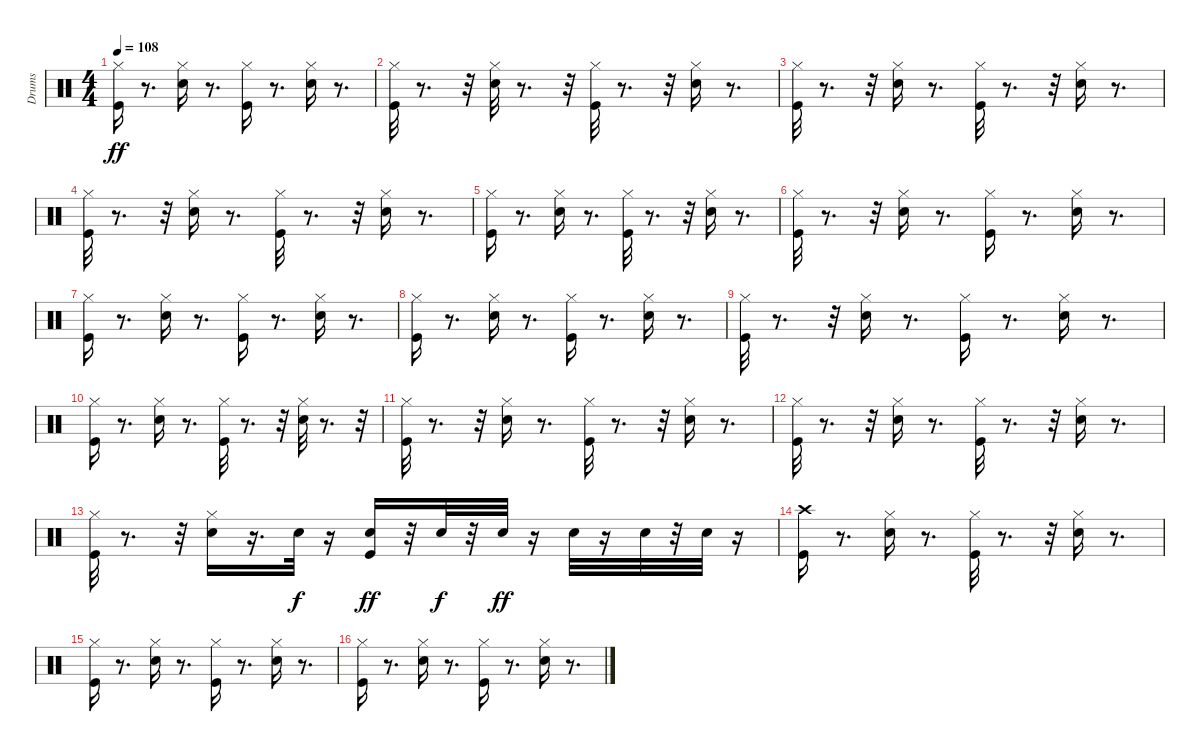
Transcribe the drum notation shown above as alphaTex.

\track ("Drums" "Drums") {instrument percussion}
\staff {score}
\articulation defaults
\ts (4 4)
\tempo 108
\clef neutral
\ks c
("Hi-Hat (closed)" "Kick (hit)").16{dy ff} r.8{d} ("Hi-Hat (closed)" "Electric Snare (hit)").16 r.8{d} ("Hi-Hat (closed)" "Kick (hit)").16 r.8{d} ("Hi-Hat (closed)" "Electric Snare (hit)").16 r.8{d} |
("Hi-Hat (closed)" "Kick (hit)").32 r.8{d} r.32 ("Hi-Hat (closed)" "Electric Snare (hit)").32 r.8{d} r.32 ("Kick (hit)" "Hi-Hat (closed)").32 r.8{d} r.32 ("Electric Snare (hit)" "Hi-Hat (closed)").16 r.8{d} |
("Hi-Hat (closed)" "Kick (hit)").32 r.8{d} r.32 ("Hi-Hat (closed)" "Electric Snare (hit)").16 r.8{d} ("Hi-Hat (closed)" "Kick (hit)").32 r.8{d} r.32 ("Hi-Hat (closed)" "Electric Snare (hit)").16 r.8{d} |
("Hi-Hat (closed)" "Kick (hit)").32 r.8{d} r.32 ("Hi-Hat (closed)" "Electric Snare (hit)").16 r.8{d} ("Hi-Hat (closed)" "Kick (hit)").32 r.8{d} r.32 ("Hi-Hat (closed)" "Electric Snare (hit)").16 r.8{d} |
("Hi-Hat (closed)" "Kick (hit)").16 r.8{d} ("Electric Snare (hit)" "Hi-Hat (closed)").16 r.8{d} ("Kick (hit)" "Hi-Hat (closed)").32 r.8{d} r.32 ("Electric Snare (hit)" "Hi-Hat (closed)").16 r.8{d} |
("Kick (hit)" "Hi-Hat (closed)").32 r.8{d} r.32 ("Electric Snare (hit)" "Hi-Hat (closed)").16 r.8{d} ("Kick (hit)" "Hi-Hat (closed)").16 r.8{d} ("Hi-Hat (closed)" "Electric Snare (hit)").16 r.8{d} |
("Hi-Hat (closed)" "Kick (hit)").16 r.8{d} ("Hi-Hat (closed)" "Electric Snare (hit)").16 r.8{d} ("Kick (hit)" "Hi-Hat (closed)").16 r.8{d} ("Hi-Hat (closed)" "Electric Snare (hit)").16 r.8{d} |
("Hi-Hat (closed)" "Kick (hit)").16 r.8{d} ("Hi-Hat (closed)" "Electric Snare (hit)").16 r.8{d} ("Hi-Hat (closed)" "Kick (hit)").16 r.8{d} ("Electric Snare (hit)" "Hi-Hat (closed)").16 r.8{d} |
("Kick (hit)" "Hi-Hat (closed)").32 r.8{d} r.32 ("Electric Snare (hit)" "Hi-Hat (closed)").16 r.8{d} ("Kick (hit)" "Hi-Hat (closed)").16 r.8{d} ("Electric Snare (hit)" "Hi-Hat (closed)").16 r.8{d} |
("Kick (hit)" "Hi-Hat (closed)").16 r.8{d} ("Electric Snare (hit)" "Hi-Hat (closed)").16 r.8{d} ("Kick (hit)" "Hi-Hat (closed)").32 r.8{d} r.32 ("Electric Snare (hit)" "Hi-Hat (closed)").32 r.8{d} r.32 |
("Hi-Hat (closed)" "Kick (hit)").32 r.8{d} r.32 ("Electric Snare (hit)" "Hi-Hat (closed)").16 r.8{d} ("Kick (hit)" "Hi-Hat (closed)").32 r.8{d} r.32 ("Electric Snare (hit)" "Hi-Hat (closed)").16 r.8{d} |
("Kick (hit)" "Hi-Hat (closed)").32 r.8{d} r.32 ("Electric Snare (hit)" "Hi-Hat (closed)").16 r.8{d} ("Kick (hit)" "Hi-Hat (closed)").32 r.8{d} r.32 ("Electric Snare (hit)" "Hi-Hat (closed)").16 r.8{d} |
("Kick (hit)" "Hi-Hat (closed)").32 r.8{d} r.32 ("Electric Snare (hit)" "Hi-Hat (closed)").16 r.16{d} "Electric Snare (hit)".32{dy f} r.16 ("Kick (hit)" "Electric Snare (hit)").16{dy ff} r.32 "Electric Snare (hit)".32{dy f} r.32 "Electric Snare (hit)".32{dy ff} r.16 "Electric Snare (hit)".32 r.16 "Electric Snare (hit)".32 r.32 "Electric Snare (hit)".32 r.16 |
("Crash high (hit)" "Kick (hit)").16 r.8{d} ("Hi-Hat (closed)" "Electric Snare (hit)").16 r.8{d} ("Hi-Hat (closed)" "Kick (hit)").32 r.8{d} r.32 ("Hi-Hat (closed)" "Electric Snare (hit)").16 r.8{d} |
("Hi-Hat (closed)" "Kick (hit)").16 r.8{d} ("Electric Snare (hit)" "Hi-Hat (closed)").16 r.8{d} ("Hi-Hat (closed)" "Kick (hit)").16 r.8{d} ("Hi-Hat (closed)" "Electric Snare (hit)").16 r.8{d} |
("Kick (hit)" "Hi-Hat (closed)").16 r.8{d} ("Hi-Hat (closed)" "Electric Snare (hit)").16 r.8{d} ("Hi-Hat (closed)" "Kick (hit)").16 r.8{d} ("Hi-Hat (closed)" "Electric Snare (hit)").16 r.8{d}
